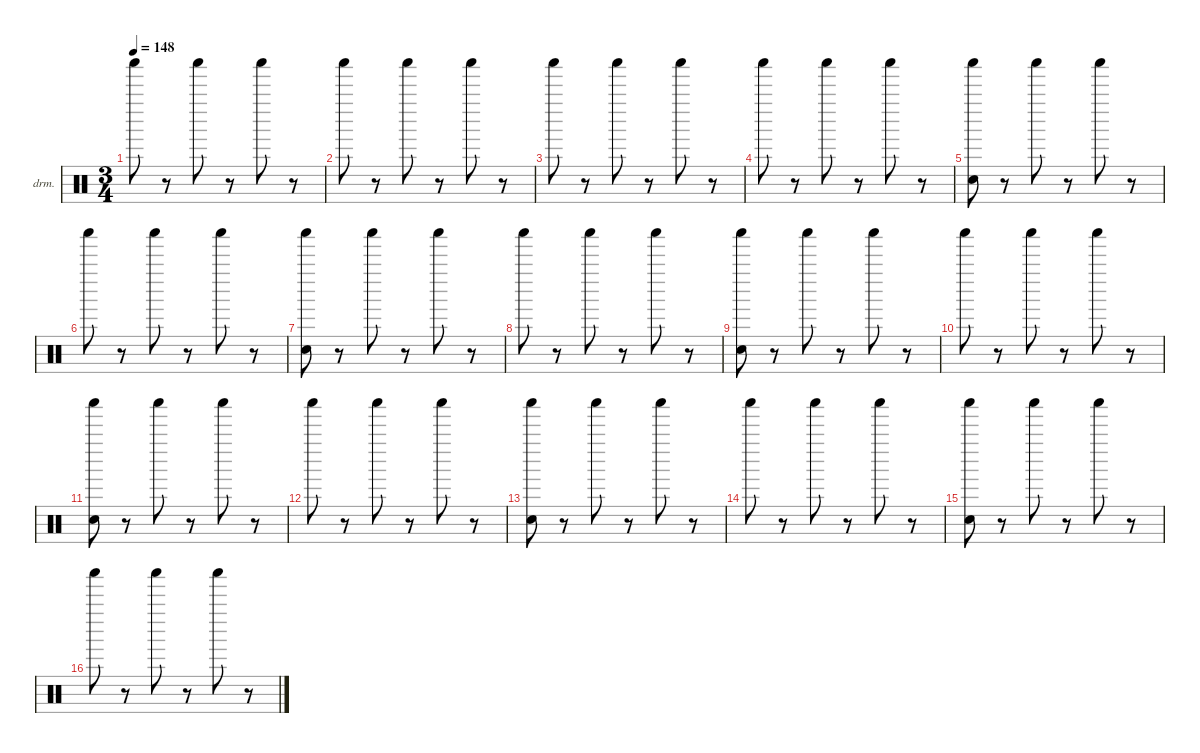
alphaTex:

\defaultSystemsLayout 4
\hideDynamics
\bracketExtendMode nobrackets
\firstSystemTrackNameOrientation horizontal
\otherSystemsTrackNameOrientation horizontal
\track ("Drums" "drm.") {instrument percussion}
\staff {score}
\articulation defaults
\ts (3 4)
\beaming (8 2 2 2)
\tempo 148
\clef neutral
\ks c "Shaker (hit)".8{dy f beam Down}
r.8{beam Down} "Shaker (hit)".8{beam Down} r.8{beam Down} "Shaker (hit)".8{beam Down} r.8{beam Down} |
"Shaker (hit)".8{beam Down} r.8{beam Down} "Shaker (hit)".8{beam Down} r.8{beam Down} "Shaker (hit)".8{beam Down} r.8{beam Down} |
"Shaker (hit)".8{beam Down} r.8{beam Down} "Shaker (hit)".8{beam Down} r.8{beam Down} "Shaker (hit)".8{beam Down} r.8{beam Down} |
"Shaker (hit)".8{beam Down} r.8{beam Down} "Shaker (hit)".8{beam Down} r.8{beam Down} "Shaker (hit)".8{beam Down} r.8{beam Down} |
("Shaker (hit)" "Hand Clap (hit)").8{beam Down} r.8{beam Down} "Shaker (hit)".8{beam Down} r.8{beam Down} "Shaker (hit)".8{beam Down} r.8{beam Down} |
"Shaker (hit)".8{beam Down} r.8{beam Down} "Shaker (hit)".8{beam Down} r.8{beam Down} "Shaker (hit)".8{beam Down} r.8{beam Down} |
("Shaker (hit)" "Hand Clap (hit)").8{beam Down} r.8{beam Down} "Shaker (hit)".8{beam Down} r.8{beam Down} "Shaker (hit)".8{beam Down} r.8{beam Down} |
"Shaker (hit)".8{beam Down} r.8{beam Down} "Shaker (hit)".8{beam Down} r.8{beam Down} "Shaker (hit)".8{beam Down} r.8{beam Down} |
("Shaker (hit)" "Hand Clap (hit)").8{beam Down} r.8{beam Down} "Shaker (hit)".8{beam Down} r.8{beam Down} "Shaker (hit)".8{beam Down} r.8{beam Down} |
"Shaker (hit)".8{beam Down} r.8{beam Down} "Shaker (hit)".8{beam Down} r.8{beam Down} "Shaker (hit)".8{beam Down} r.8{beam Down} |
("Shaker (hit)" "Hand Clap (hit)").8{beam Down} r.8{beam Down} "Shaker (hit)".8{beam Down} r.8{beam Down} "Shaker (hit)".8{beam Down} r.8{beam Down} |
"Shaker (hit)".8{beam Down} r.8{beam Down} "Shaker (hit)".8{beam Down} r.8{beam Down} "Shaker (hit)".8{beam Down} r.8{beam Down} |
("Shaker (hit)" "Hand Clap (hit)").8{beam Down} r.8{beam Down} "Shaker (hit)".8{beam Down} r.8{beam Down} "Shaker (hit)".8{beam Down} r.8{beam Down} |
"Shaker (hit)".8{beam Down} r.8{beam Down} "Shaker (hit)".8{beam Down} r.8{beam Down} "Shaker (hit)".8{beam Down} r.8{beam Down} |
("Shaker (hit)" "Hand Clap (hit)").8{beam Down} r.8{beam Down} "Shaker (hit)".8{beam Down} r.8{beam Down} "Shaker (hit)".8{beam Down} r.8{beam Down} |
"Shaker (hit)".8{beam Down} r.8{beam Down} "Shaker (hit)".8{beam Down} r.8{beam Down} "Shaker (hit)".8{beam Down} r.8{beam Down}
